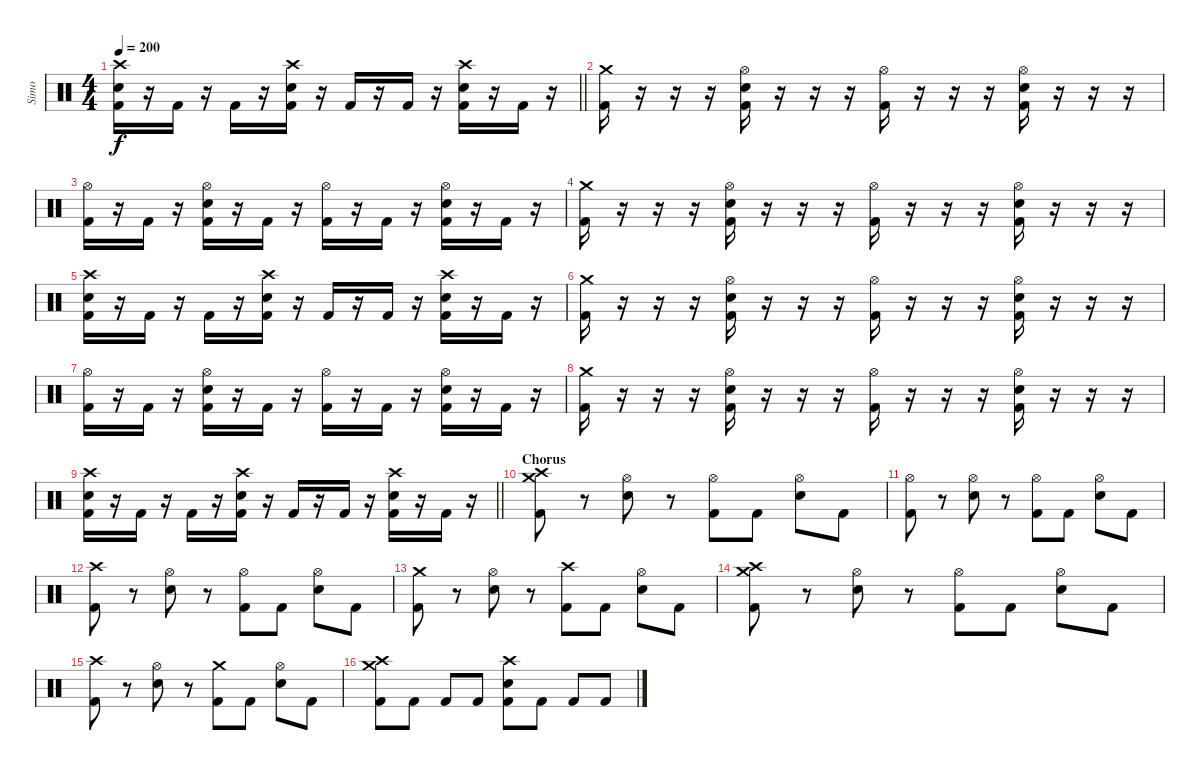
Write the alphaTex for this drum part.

\track ("Simo" "Simo") {instrument percussion bank 121}
\staff {score}
\articulation defaults
\ts (4 4)
\tempo 200
\clef neutral
\barLineRight lightlight
\ks c
("Kick (hit) 2" "Electric Snare (hit)" "Crash high (hit)").16{dy f} r.16 "Kick (hit) 2".16 r.16 "Kick (hit) 2".16 r.16 ("Kick (hit) 2" "Electric Snare (hit)" "Crash high (hit)").16 r.16 "Kick (hit) 2".16 r.16 "Kick (hit) 2".16 r.16 ("Kick (hit) 2" "Electric Snare (hit)" "Crash high (hit)").16 r.16 "Kick (hit) 2".16 r.16 |
\section ("" "")
("Kick (hit) 2" "Crash medium (hit)").16 r.16 r.16 r.16 ("Kick (hit) 2" "Electric Snare (hit)" "Hi-Hat (open)").16 r.16 r.16 r.16 ("Kick (hit) 2" "Hi-Hat (open)").16 r.16 r.16 r.16 ("Kick (hit) 2" "Electric Snare (hit)" "Hi-Hat (open)").16 r.16 r.16 r.16 |
("Kick (hit) 2" "Hi-Hat (open)").16 r.16 "Kick (hit) 2".16 r.16 ("Kick (hit) 2" "Electric Snare (hit)" "Hi-Hat (open)").16 r.16 "Kick (hit) 2".16 r.16 ("Kick (hit) 2" "Hi-Hat (open)").16 r.16 "Kick (hit) 2".16 r.16 ("Kick (hit) 2" "Electric Snare (hit)" "Hi-Hat (open)").16 r.16 "Kick (hit) 2".16 r.16 |
("Kick (hit) 2" "Crash medium (hit)").16 r.16 r.16 r.16 ("Kick (hit) 2" "Electric Snare (hit)" "Hi-Hat (open)").16 r.16 r.16 r.16 ("Kick (hit) 2" "Hi-Hat (open)").16 r.16 r.16 r.16 ("Kick (hit) 2" "Electric Snare (hit)" "Hi-Hat (open)").16 r.16 r.16 r.16 |
("Kick (hit) 2" "Electric Snare (hit)" "Crash high (hit)").16 r.16 "Kick (hit) 2".16 r.16 "Kick (hit) 2".16 r.16 ("Kick (hit) 2" "Electric Snare (hit)" "Crash high (hit)").16 r.16 "Kick (hit) 2".16 r.16 "Kick (hit) 2".16 r.16 ("Kick (hit) 2" "Electric Snare (hit)" "Crash high (hit)").16 r.16 "Kick (hit) 2".16 r.16 |
("Kick (hit) 2" "Crash medium (hit)").16 r.16 r.16 r.16 ("Kick (hit) 2" "Electric Snare (hit)" "Hi-Hat (open)").16 r.16 r.16 r.16 ("Kick (hit) 2" "Hi-Hat (open)").16 r.16 r.16 r.16 ("Kick (hit) 2" "Electric Snare (hit)" "Hi-Hat (open)").16 r.16 r.16 r.16 |
("Kick (hit) 2" "Hi-Hat (open)").16 r.16 "Kick (hit) 2".16 r.16 ("Kick (hit) 2" "Electric Snare (hit)" "Hi-Hat (open)").16 r.16 "Kick (hit) 2".16 r.16 ("Kick (hit) 2" "Hi-Hat (open)").16 r.16 "Kick (hit) 2".16 r.16 ("Kick (hit) 2" "Electric Snare (hit)" "Hi-Hat (open)").16 r.16 "Kick (hit) 2".16 r.16 |
("Kick (hit) 2" "Crash medium (hit)").16 r.16 r.16 r.16 ("Kick (hit) 2" "Electric Snare (hit)" "Hi-Hat (open)").16 r.16 r.16 r.16 ("Kick (hit) 2" "Hi-Hat (open)").16 r.16 r.16 r.16 ("Kick (hit) 2" "Electric Snare (hit)" "Hi-Hat (open)").16 r.16 r.16 r.16 |
\barLineRight lightlight
("Kick (hit) 2" "Electric Snare (hit)" "Crash high (hit)").16 r.16 "Kick (hit) 2".16 r.16 "Kick (hit) 2".16 r.16 ("Kick (hit) 2" "Electric Snare (hit)" "Crash high (hit)").16 r.16 "Kick (hit) 2".16 r.16 "Kick (hit) 2".16 r.16 ("Kick (hit) 2" "Electric Snare (hit)" "Crash high (hit)").16 r.16 "Kick (hit) 2".16 r.16 |
\section ("" "Chorus")
("Kick (hit) 2" "Crash high (hit)" "Crash medium (hit)").8 r.8 ("Electric Snare (hit)" "Hi-Hat (open)").8 r.8 ("Kick (hit) 2" "Hi-Hat (open)").8 "Kick (hit) 2".8 ("Electric Snare (hit)" "Hi-Hat (open)").8 "Kick (hit) 2".8 |
("Kick (hit) 2" "Hi-Hat (open)").8 r.8 ("Electric Snare (hit)" "Hi-Hat (open)").8 r.8 ("Kick (hit) 2" "Hi-Hat (open)").8 "Kick (hit) 2".8 ("Electric Snare (hit)" "Hi-Hat (open)").8 "Kick (hit) 2".8 |
("Kick (hit) 2" "Crash high (hit)").8 r.8 ("Electric Snare (hit)" "Hi-Hat (open)").8 r.8 ("Kick (hit) 2" "Hi-Hat (open)").8 "Kick (hit) 2".8 ("Electric Snare (hit)" "Hi-Hat (open)").8 "Kick (hit) 2".8 |
("Kick (hit) 2" "Crash medium (hit)").8 r.8 ("Electric Snare (hit)" "Hi-Hat (open)").8 r.8 ("Kick (hit) 2" "Crash high (hit)").8 "Kick (hit) 2".8 ("Electric Snare (hit)" "Hi-Hat (open)").8 "Kick (hit) 2".8 |
("Kick (hit) 2" "Crash high (hit)" "Crash medium (hit)").8 r.8 ("Electric Snare (hit)" "Hi-Hat (open)").8 r.8 ("Kick (hit) 2" "Hi-Hat (open)").8 "Kick (hit) 2".8 ("Electric Snare (hit)" "Hi-Hat (open)").8 "Kick (hit) 2".8 |
("Kick (hit) 2" "Crash high (hit)").8 r.8 ("Electric Snare (hit)" "Hi-Hat (open)").8 r.8 ("Kick (hit) 2" "Crash medium (hit)").8 "Kick (hit) 2".8 ("Electric Snare (hit)" "Hi-Hat (open)").8 "Kick (hit) 2".8 |
("Kick (hit) 2" "Crash medium (hit)" "Crash high (hit)").8 "Kick (hit) 2".8 "Kick (hit) 2".8 "Kick (hit) 2".8 ("Kick (hit) 2" "Crash high (hit)" "Electric Snare (hit)").8 "Kick (hit) 2".8 "Kick (hit) 2".8 "Kick (hit) 2".8
